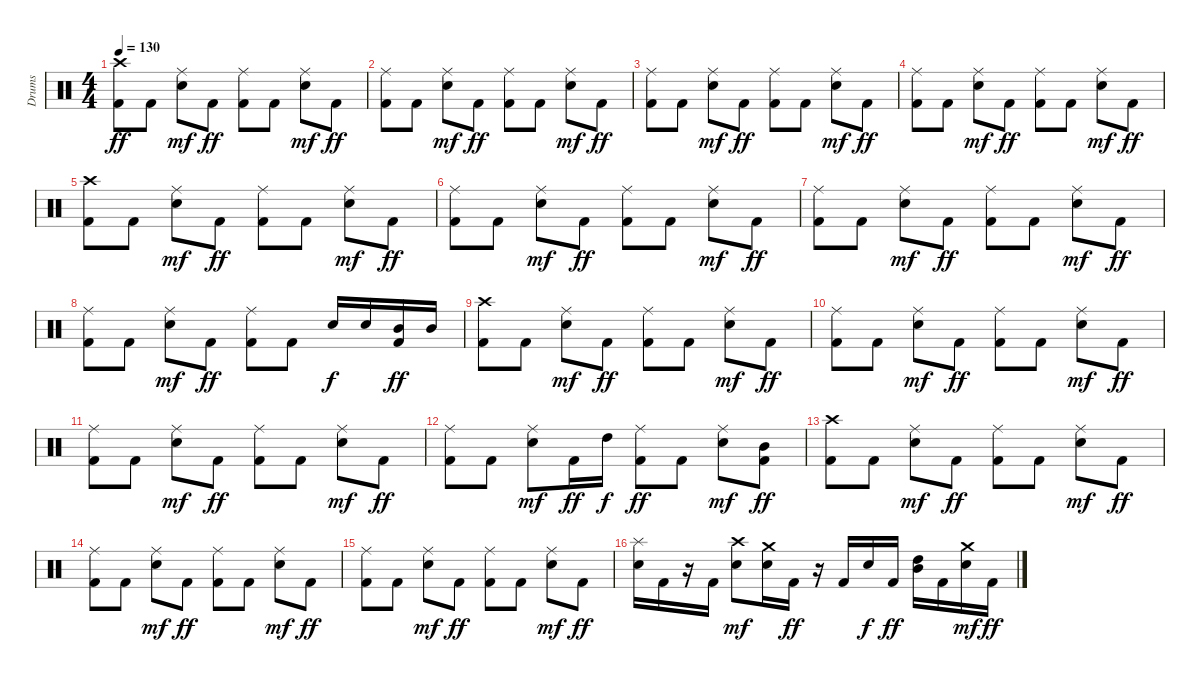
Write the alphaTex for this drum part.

\track ("Drums" "Drums") {instrument percussion}
\staff {score}
\articulation defaults
\ts (4 4)
\tempo 130
\clef neutral
\ks c
("Crash high (hit)" "Kick (hit) 2").8{dy ff} "Kick (hit) 2".8 ("Ride (middle)" "Electric Snare (hit)").8{dy mf} "Kick (hit) 2".8{dy ff} ("Ride (middle)" "Kick (hit) 2").8 "Kick (hit) 2".8 ("Ride (middle)" "Electric Snare (hit)").8{dy mf} "Kick (hit) 2".8{dy ff} |
("Ride (middle)" "Kick (hit) 2").8 "Kick (hit) 2".8 ("Ride (middle)" "Electric Snare (hit)").8{dy mf} "Kick (hit) 2".8{dy ff} ("Ride (middle)" "Kick (hit) 2").8 "Kick (hit) 2".8 ("Ride (middle)" "Electric Snare (hit)").8{dy mf} "Kick (hit) 2".8{dy ff} |
("Ride (middle)" "Kick (hit) 2").8 "Kick (hit) 2".8 ("Ride (middle)" "Electric Snare (hit)").8{dy mf} "Kick (hit) 2".8{dy ff} ("Ride (middle)" "Kick (hit) 2").8 "Kick (hit) 2".8 ("Ride (middle)" "Electric Snare (hit)").8{dy mf} "Kick (hit) 2".8{dy ff} |
("Ride (middle)" "Kick (hit) 2").8 "Kick (hit) 2".8 ("Ride (middle)" "Electric Snare (hit)").8{dy mf} "Kick (hit) 2".8{dy ff} ("Ride (middle)" "Kick (hit) 2").8 "Kick (hit) 2".8 ("Ride (middle)" "Electric Snare (hit)").8{dy mf} "Kick (hit) 2".8{dy ff} |
("Crash high (hit)" "Kick (hit) 2").8 "Kick (hit) 2".8 ("Ride (middle)" "Electric Snare (hit)").8{dy mf} "Kick (hit) 2".8{dy ff} ("Ride (middle)" "Kick (hit) 2").8 "Kick (hit) 2".8 ("Ride (middle)" "Electric Snare (hit)").8{dy mf} "Kick (hit) 2".8{dy ff} |
("Ride (middle)" "Kick (hit) 2").8 "Kick (hit) 2".8 ("Ride (middle)" "Electric Snare (hit)").8{dy mf} "Kick (hit) 2".8{dy ff} ("Ride (middle)" "Kick (hit) 2").8 "Kick (hit) 2".8 ("Ride (middle)" "Electric Snare (hit)").8{dy mf} "Kick (hit) 2".8{dy ff} |
("Ride (middle)" "Kick (hit) 2").8 "Kick (hit) 2".8 ("Ride (middle)" "Electric Snare (hit)").8{dy mf} "Kick (hit) 2".8{dy ff} ("Ride (middle)" "Kick (hit) 2").8 "Kick (hit) 2".8 ("Ride (middle)" "Electric Snare (hit)").8{dy mf} "Kick (hit) 2".8{dy ff} |
("Ride (middle)" "Kick (hit) 2").8 "Kick (hit) 2".8 ("Ride (middle)" "Electric Snare (hit)").8{dy mf} "Kick (hit) 2".8{dy ff} ("Ride (middle)" "Kick (hit) 2").8 "Kick (hit) 2".8 "Electric Snare (hit)".16{dy f} "Electric Snare (hit)".16 ("Mid Tom (hit)" "Kick (hit) 2").16{dy ff} "Mid Tom (hit)".16 |
\section ("" " ")
("Crash high (hit)" "Kick (hit) 2").8 "Kick (hit) 2".8 ("Ride (middle)" "Electric Snare (hit)").8{dy mf} "Kick (hit) 2".8{dy ff} ("Ride (middle)" "Kick (hit) 2").8 "Kick (hit) 2".8 ("Ride (middle)" "Electric Snare (hit)").8{dy mf} "Kick (hit) 2".8{dy ff} |
("Ride (middle)" "Kick (hit) 2").8 "Kick (hit) 2".8 ("Ride (middle)" "Electric Snare (hit)").8{dy mf} "Kick (hit) 2".8{dy ff} ("Ride (middle)" "Kick (hit) 2").8 "Kick (hit) 2".8 ("Ride (middle)" "Electric Snare (hit)").8{dy mf} "Kick (hit) 2".8{dy ff} |
("Ride (middle)" "Kick (hit) 2").8 "Kick (hit) 2".8 ("Ride (middle)" "Electric Snare (hit)").8{dy mf} "Kick (hit) 2".8{dy ff} ("Ride (middle)" "Kick (hit) 2").8 "Kick (hit) 2".8 ("Ride (middle)" "Electric Snare (hit)").8{dy mf} "Kick (hit) 2".8{dy ff} |
("Ride (middle)" "Kick (hit) 2").8 "Kick (hit) 2".8 ("Ride (middle)" "Electric Snare (hit)").8{dy mf} "Kick (hit) 2".16{dy ff} "High Tom (hit)".16{dy f} ("Ride (middle)" "Kick (hit) 2").8{dy ff} "Kick (hit) 2".8 ("Ride (middle)" "Electric Snare (hit)").8{dy mf} ("Mid Tom (hit)" "Kick (hit) 2").8{dy ff} |
("Crash high (hit)" "Kick (hit) 2").8 "Kick (hit) 2".8 ("Ride (middle)" "Electric Snare (hit)").8{dy mf} "Kick (hit) 2".8{dy ff} ("Ride (middle)" "Kick (hit) 2").8 "Kick (hit) 2".8 ("Ride (middle)" "Electric Snare (hit)").8{dy mf} "Kick (hit) 2".8{dy ff} |
("Ride (middle)" "Kick (hit) 2").8 "Kick (hit) 2".8 ("Ride (middle)" "Electric Snare (hit)").8{dy mf} "Kick (hit) 2".8{dy ff} ("Ride (middle)" "Kick (hit) 2").8 "Kick (hit) 2".8 ("Ride (middle)" "Electric Snare (hit)").8{dy mf} "Kick (hit) 2".8{dy ff} |
("Ride (middle)" "Kick (hit) 2").8 "Kick (hit) 2".8 ("Ride (middle)" "Electric Snare (hit)").8{dy mf} "Kick (hit) 2".8{dy ff} ("Ride (middle)" "Kick (hit) 2").8 "Kick (hit) 2".8 ("Ride (middle)" "Electric Snare (hit)").8{dy mf} "Kick (hit) 2".8{dy ff} |
("Splash (hit)" "Electric Snare (hit)").16 "Kick (hit) 2".16 r.16 "Kick (hit) 2".16 ("Crash high (hit)" "Electric Snare (hit)").8{dy mf} ("Crash medium (hit)" "Electric Snare (hit)").16 "Kick (hit) 2".16{dy ff} r.16 "Kick (hit) 2".16 "Electric Snare (hit)".16{dy f} "Kick (hit) 2".16{dy ff} ("High Tom (hit)" "Mid Tom (hit)").16 "Kick (hit) 2".16 ("Crash medium (hit)" "Electric Snare (hit)").16{dy mf} "Kick (hit) 2".16{dy ff}
